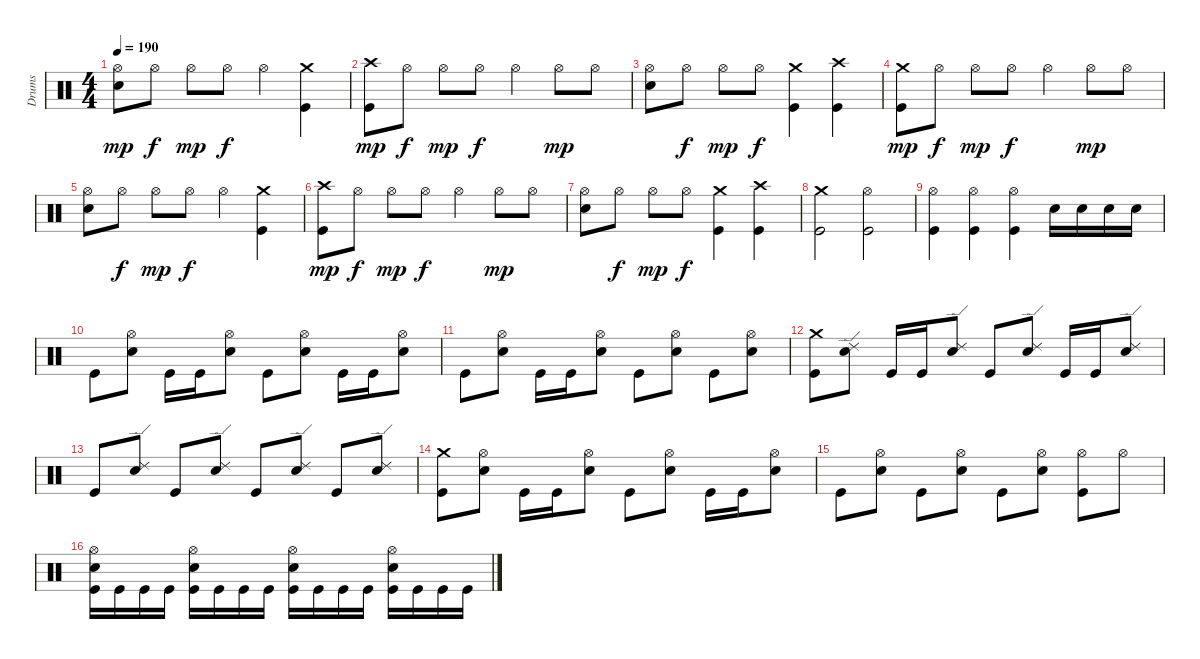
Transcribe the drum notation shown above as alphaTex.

\track ("Drums" "Drums") {instrument percussion}
\staff {score}
\articulation defaults
\ts (4 4)
\tempo 190
\clef neutral
\ks c
("Hi-Hat (open)" "Electric Snare (hit)").8{dy mp} "Hi-Hat (open)".8{dy f} "Hi-Hat (open)".8{dy mp} "Hi-Hat (open)".8{dy f} "Hi-Hat (open)".4 ("Crash medium (hit)" "Kick (hit)").4 |
("Crash high (hit)" "Kick (hit)").8{dy mp} "Hi-Hat (open)".8{dy f} "Hi-Hat (open)".8{dy mp} "Hi-Hat (open)".8{dy f} "Hi-Hat (open)".4 "Hi-Hat (open)".8{dy mp} "Hi-Hat (open)".8 |
("Hi-Hat (open)" "Electric Snare (hit)").8 "Hi-Hat (open)".8{dy f} "Hi-Hat (open)".8{dy mp} "Hi-Hat (open)".8{dy f} ("Crash medium (hit)" "Kick (hit)").4 ("Crash high (hit)" "Kick (hit)").4 |
("Crash medium (hit)" "Kick (hit)").8{dy mp} "Hi-Hat (open)".8{dy f} "Hi-Hat (open)".8{dy mp} "Hi-Hat (open)".8{dy f} "Hi-Hat (open)".4 "Hi-Hat (open)".8{dy mp} "Hi-Hat (open)".8 |
("Hi-Hat (open)" "Electric Snare (hit)").8 "Hi-Hat (open)".8{dy f} "Hi-Hat (open)".8{dy mp} "Hi-Hat (open)".8{dy f} "Hi-Hat (open)".4 ("Crash medium (hit)" "Kick (hit)").4 |
("Crash high (hit)" "Kick (hit)").8{dy mp} "Hi-Hat (open)".8{dy f} "Hi-Hat (open)".8{dy mp} "Hi-Hat (open)".8{dy f} "Hi-Hat (open)".4 "Hi-Hat (open)".8{dy mp} "Hi-Hat (open)".8 |
("Hi-Hat (open)" "Electric Snare (hit)").8 "Hi-Hat (open)".8{dy f} "Hi-Hat (open)".8{dy mp} "Hi-Hat (open)".8{dy f} ("Crash medium (hit)" "Kick (hit)").4 ("Crash high (hit)" "Kick (hit)").4 |
("Crash medium (hit)" "Kick (hit)").2 ("Hi-Hat (open)" "Kick (hit)").2 |
("Kick (hit)" "Hi-Hat (open)").4 ("Kick (hit)" "Hi-Hat (open)").4 ("Kick (hit)" "Hi-Hat (open)").4 "Electric Snare (hit)".16 "Electric Snare (hit)".16 "Electric Snare (hit)".16 "Electric Snare (hit)".16 |
"Kick (hit)".8 ("Hi-Hat (open)" "Electric Snare (hit)").8 "Kick (hit)".16 "Kick (hit)".16 ("Hi-Hat (open)" "Electric Snare (hit)").8 "Kick (hit)".8 ("Hi-Hat (open)" "Electric Snare (hit)").8 "Kick (hit)".16 "Kick (hit)".16 ("Hi-Hat (open)" "Electric Snare (hit)").8 |
"Kick (hit)".8 ("Hi-Hat (open)" "Electric Snare (hit)").8 "Kick (hit)".16 "Kick (hit)".16 ("Hi-Hat (open)" "Electric Snare (hit)").8 "Kick (hit)".8 ("Hi-Hat (open)" "Electric Snare (hit)").8 "Kick (hit)".8 ("Hi-Hat (open)" "Electric Snare (hit)").8 |
("Crash medium (hit)" "Kick (hit)").8 ("Ride (edge) 2" "Electric Snare (hit)").8 "Kick (hit)".16 "Kick (hit)".16 ("Ride (edge) 2" "Electric Snare (hit)").8 "Kick (hit)".8 ("Ride (edge) 2" "Electric Snare (hit)").8 "Kick (hit)".16 "Kick (hit)".16 ("Ride (edge) 2" "Electric Snare (hit)").8 |
"Kick (hit)".8 ("Ride (edge) 2" "Electric Snare (hit)").8 "Kick (hit)".8 ("Ride (edge) 2" "Electric Snare (hit)").8 "Kick (hit)".8 ("Ride (edge) 2" "Electric Snare (hit)").8 "Kick (hit)".8 ("Ride (edge) 2" "Electric Snare (hit)").8 |
("Crash medium (hit)" "Kick (hit)").8 ("Hi-Hat (open)" "Electric Snare (hit)").8 "Kick (hit)".16 "Kick (hit)".16 ("Hi-Hat (open)" "Electric Snare (hit)").8 "Kick (hit)".8 ("Hi-Hat (open)" "Electric Snare (hit)").8 "Kick (hit)".16 "Kick (hit)".16 ("Hi-Hat (open)" "Electric Snare (hit)").8 |
"Kick (hit)".8 ("Hi-Hat (open)" "Electric Snare (hit)").8 "Kick (hit)".8 ("Hi-Hat (open)" "Electric Snare (hit)").8 "Kick (hit)".8 ("Hi-Hat (open)" "Electric Snare (hit)").8 ("Hi-Hat (open)" "Kick (hit)").8 "Hi-Hat (open)".8 |
("Hi-Hat (open)" "Electric Snare (hit)" "Kick (hit)").16 "Kick (hit)".16 "Kick (hit)".16 "Kick (hit)".16 ("Hi-Hat (open)" "Electric Snare (hit)" "Kick (hit)").16 "Kick (hit)".16 "Kick (hit)".16 "Kick (hit)".16 ("Hi-Hat (open)" "Electric Snare (hit)" "Kick (hit)").16 "Kick (hit)".16 "Kick (hit)".16 "Kick (hit)".16 ("Hi-Hat (open)" "Electric Snare (hit)" "Kick (hit)").16 "Kick (hit)".16 "Kick (hit)".16 "Kick (hit)".16
